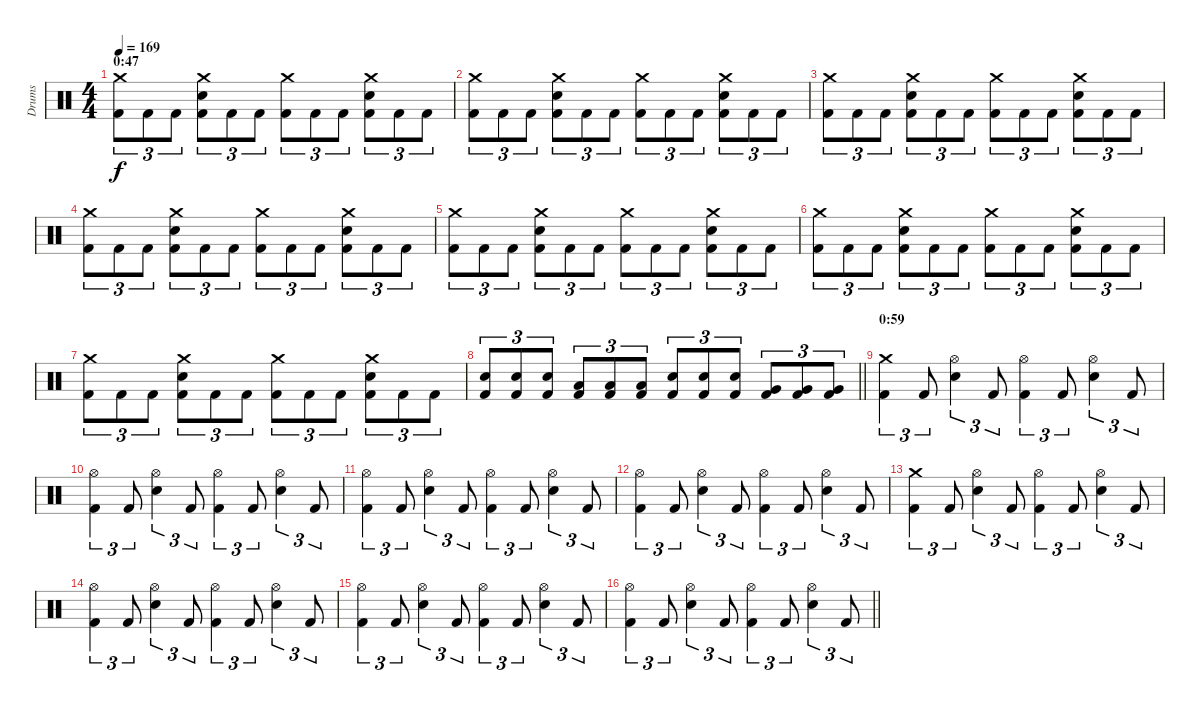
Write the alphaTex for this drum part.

\track ("Drums" "Drums") {instrument percussion}
\staff {score}
\articulation defaults
\ts (4 4)
\section ("" "0:47")
\tempo 169
\clef neutral
\ks c
("Crash medium (hit)" "Kick (hit) 2").8{tu (3 2) dy f} "Kick (hit) 2".8{tu (3 2)} "Kick (hit) 2".8{tu (3 2)} ("Crash medium (hit)" "Snare (hit) 2" "Kick (hit) 2").8{tu (3 2)} "Kick (hit) 2".8{tu (3 2)} "Kick (hit) 2".8{tu (3 2)} ("Crash medium (hit)" "Kick (hit) 2").8{tu (3 2)} "Kick (hit) 2".8{tu (3 2)} "Kick (hit) 2".8{tu (3 2)} ("Crash medium (hit)" "Snare (hit) 2" "Kick (hit) 2").8{tu (3 2)} "Kick (hit) 2".8{tu (3 2)} "Kick (hit) 2".8{tu (3 2)} |
("Crash medium (hit)" "Kick (hit) 2").8{tu (3 2)} "Kick (hit) 2".8{tu (3 2)} "Kick (hit) 2".8{tu (3 2)} ("Crash medium (hit)" "Snare (hit) 2" "Kick (hit) 2").8{tu (3 2)} "Kick (hit) 2".8{tu (3 2)} "Kick (hit) 2".8{tu (3 2)} ("Crash medium (hit)" "Kick (hit) 2").8{tu (3 2)} "Kick (hit) 2".8{tu (3 2)} "Kick (hit) 2".8{tu (3 2)} ("Crash medium (hit)" "Snare (hit) 2" "Kick (hit) 2").8{tu (3 2)} "Kick (hit) 2".8{tu (3 2)} "Kick (hit) 2".8{tu (3 2)} |
("Crash medium (hit)" "Kick (hit) 2").8{tu (3 2)} "Kick (hit) 2".8{tu (3 2)} "Kick (hit) 2".8{tu (3 2)} ("Crash medium (hit)" "Snare (hit) 2" "Kick (hit) 2").8{tu (3 2)} "Kick (hit) 2".8{tu (3 2)} "Kick (hit) 2".8{tu (3 2)} ("Crash medium (hit)" "Kick (hit) 2").8{tu (3 2)} "Kick (hit) 2".8{tu (3 2)} "Kick (hit) 2".8{tu (3 2)} ("Crash medium (hit)" "Snare (hit) 2" "Kick (hit) 2").8{tu (3 2)} "Kick (hit) 2".8{tu (3 2)} "Kick (hit) 2".8{tu (3 2)} |
("Crash medium (hit)" "Kick (hit) 2").8{tu (3 2)} "Kick (hit) 2".8{tu (3 2)} "Kick (hit) 2".8{tu (3 2)} ("Crash medium (hit)" "Snare (hit) 2" "Kick (hit) 2").8{tu (3 2)} "Kick (hit) 2".8{tu (3 2)} "Kick (hit) 2".8{tu (3 2)} ("Crash medium (hit)" "Kick (hit) 2").8{tu (3 2)} "Kick (hit) 2".8{tu (3 2)} "Kick (hit) 2".8{tu (3 2)} ("Crash medium (hit)" "Snare (hit) 2" "Kick (hit) 2").8{tu (3 2)} "Kick (hit) 2".8{tu (3 2)} "Kick (hit) 2".8{tu (3 2)} |
("Crash medium (hit)" "Kick (hit) 2").8{tu (3 2)} "Kick (hit) 2".8{tu (3 2)} "Kick (hit) 2".8{tu (3 2)} ("Crash medium (hit)" "Snare (hit) 2" "Kick (hit) 2").8{tu (3 2)} "Kick (hit) 2".8{tu (3 2)} "Kick (hit) 2".8{tu (3 2)} ("Crash medium (hit)" "Kick (hit) 2").8{tu (3 2)} "Kick (hit) 2".8{tu (3 2)} "Kick (hit) 2".8{tu (3 2)} ("Crash medium (hit)" "Snare (hit) 2" "Kick (hit) 2").8{tu (3 2)} "Kick (hit) 2".8{tu (3 2)} "Kick (hit) 2".8{tu (3 2)} |
("Crash medium (hit)" "Kick (hit) 2").8{tu (3 2)} "Kick (hit) 2".8{tu (3 2)} "Kick (hit) 2".8{tu (3 2)} ("Crash medium (hit)" "Snare (hit) 2" "Kick (hit) 2").8{tu (3 2)} "Kick (hit) 2".8{tu (3 2)} "Kick (hit) 2".8{tu (3 2)} ("Crash medium (hit)" "Kick (hit) 2").8{tu (3 2)} "Kick (hit) 2".8{tu (3 2)} "Kick (hit) 2".8{tu (3 2)} ("Crash medium (hit)" "Snare (hit) 2" "Kick (hit) 2").8{tu (3 2)} "Kick (hit) 2".8{tu (3 2)} "Kick (hit) 2".8{tu (3 2)} |
("Crash medium (hit)" "Kick (hit) 2").8{tu (3 2)} "Kick (hit) 2".8{tu (3 2)} "Kick (hit) 2".8{tu (3 2)} ("Crash medium (hit)" "Snare (hit) 2" "Kick (hit) 2").8{tu (3 2)} "Kick (hit) 2".8{tu (3 2)} "Kick (hit) 2".8{tu (3 2)} ("Crash medium (hit)" "Kick (hit) 2").8{tu (3 2)} "Kick (hit) 2".8{tu (3 2)} "Kick (hit) 2".8{tu (3 2)} ("Crash medium (hit)" "Snare (hit) 2" "Kick (hit) 2").8{tu (3 2)} "Kick (hit) 2".8{tu (3 2)} "Kick (hit) 2".8{tu (3 2)} |
\barLineRight lightlight
("Snare (hit) 2" "Kick (hit) 2").8{tu (3 2)} ("Snare (hit) 2" "Kick (hit) 2").8{tu (3 2)} ("Snare (hit) 2" "Kick (hit) 2").8{tu (3 2)} ("Low Tom (hit)" "Kick (hit) 2").8{tu (3 2)} ("Low Tom (hit)" "Kick (hit) 2").8{tu (3 2)} ("Low Tom (hit)" "Kick (hit) 2").8{tu (3 2)} ("Snare (hit) 2" "Kick (hit) 2").8{tu (3 2)} ("Snare (hit) 2" "Kick (hit) 2").8{tu (3 2)} ("Snare (hit) 2" "Kick (hit) 2").8{tu (3 2)} ("Very Low Tom (hit)" "Kick (hit) 2").8{tu (3 2)} ("Very Low Tom (hit)" "Kick (hit) 2").8{tu (3 2)} ("Very Low Tom (hit)" "Kick (hit) 2").8{tu (3 2)} |
\section ("" "0:59")
("Crash medium (hit)" "Kick (hit) 2").4{tu (3 2)} "Kick (hit) 2".8{tu (3 2)} ("Hi-Hat (open)" "Snare (hit) 2").4{tu (3 2)} "Kick (hit) 2".8{tu (3 2)} ("Hi-Hat (open)" "Kick (hit) 2").4{tu (3 2)} "Kick (hit) 2".8{tu (3 2)} ("Hi-Hat (open)" "Snare (hit) 2").4{tu (3 2)} "Kick (hit) 2".8{tu (3 2)} |
("Hi-Hat (open)" "Kick (hit) 2").4{tu (3 2)} "Kick (hit) 2".8{tu (3 2)} ("Hi-Hat (open)" "Snare (hit) 2").4{tu (3 2)} "Kick (hit) 2".8{tu (3 2)} ("Hi-Hat (open)" "Kick (hit) 2").4{tu (3 2)} "Kick (hit) 2".8{tu (3 2)} ("Hi-Hat (open)" "Snare (hit) 2").4{tu (3 2)} "Kick (hit) 2".8{tu (3 2)} |
("Hi-Hat (open)" "Kick (hit) 2").4{tu (3 2)} "Kick (hit) 2".8{tu (3 2)} ("Hi-Hat (open)" "Snare (hit) 2").4{tu (3 2)} "Kick (hit) 2".8{tu (3 2)} ("Hi-Hat (open)" "Kick (hit) 2").4{tu (3 2)} "Kick (hit) 2".8{tu (3 2)} ("Hi-Hat (open)" "Snare (hit) 2").4{tu (3 2)} "Kick (hit) 2".8{tu (3 2)} |
("Hi-Hat (open)" "Kick (hit) 2").4{tu (3 2)} "Kick (hit) 2".8{tu (3 2)} ("Hi-Hat (open)" "Snare (hit) 2").4{tu (3 2)} "Kick (hit) 2".8{tu (3 2)} ("Hi-Hat (open)" "Kick (hit) 2").4{tu (3 2)} "Kick (hit) 2".8{tu (3 2)} ("Hi-Hat (open)" "Snare (hit) 2").4{tu (3 2)} "Kick (hit) 2".8{tu (3 2)} |
("Crash medium (hit)" "Kick (hit) 2").4{tu (3 2)} "Kick (hit) 2".8{tu (3 2)} ("Hi-Hat (open)" "Snare (hit) 2").4{tu (3 2)} "Kick (hit) 2".8{tu (3 2)} ("Hi-Hat (open)" "Kick (hit) 2").4{tu (3 2)} "Kick (hit) 2".8{tu (3 2)} ("Hi-Hat (open)" "Snare (hit) 2").4{tu (3 2)} "Kick (hit) 2".8{tu (3 2)} |
("Hi-Hat (open)" "Kick (hit) 2").4{tu (3 2)} "Kick (hit) 2".8{tu (3 2)} ("Hi-Hat (open)" "Snare (hit) 2").4{tu (3 2)} "Kick (hit) 2".8{tu (3 2)} ("Hi-Hat (open)" "Kick (hit) 2").4{tu (3 2)} "Kick (hit) 2".8{tu (3 2)} ("Hi-Hat (open)" "Snare (hit) 2").4{tu (3 2)} "Kick (hit) 2".8{tu (3 2)} |
("Hi-Hat (open)" "Kick (hit) 2").4{tu (3 2)} "Kick (hit) 2".8{tu (3 2)} ("Hi-Hat (open)" "Snare (hit) 2").4{tu (3 2)} "Kick (hit) 2".8{tu (3 2)} ("Hi-Hat (open)" "Kick (hit) 2").4{tu (3 2)} "Kick (hit) 2".8{tu (3 2)} ("Hi-Hat (open)" "Snare (hit) 2").4{tu (3 2)} "Kick (hit) 2".8{tu (3 2)} |
\barLineRight lightlight
("Hi-Hat (open)" "Kick (hit) 2").4{tu (3 2)} "Kick (hit) 2".8{tu (3 2)} ("Hi-Hat (open)" "Snare (hit) 2").4{tu (3 2)} "Kick (hit) 2".8{tu (3 2)} ("Hi-Hat (open)" "Kick (hit) 2").4{tu (3 2)} "Kick (hit) 2".8{tu (3 2)} ("Hi-Hat (open)" "Snare (hit) 2").4{tu (3 2)} "Kick (hit) 2".8{tu (3 2)}
